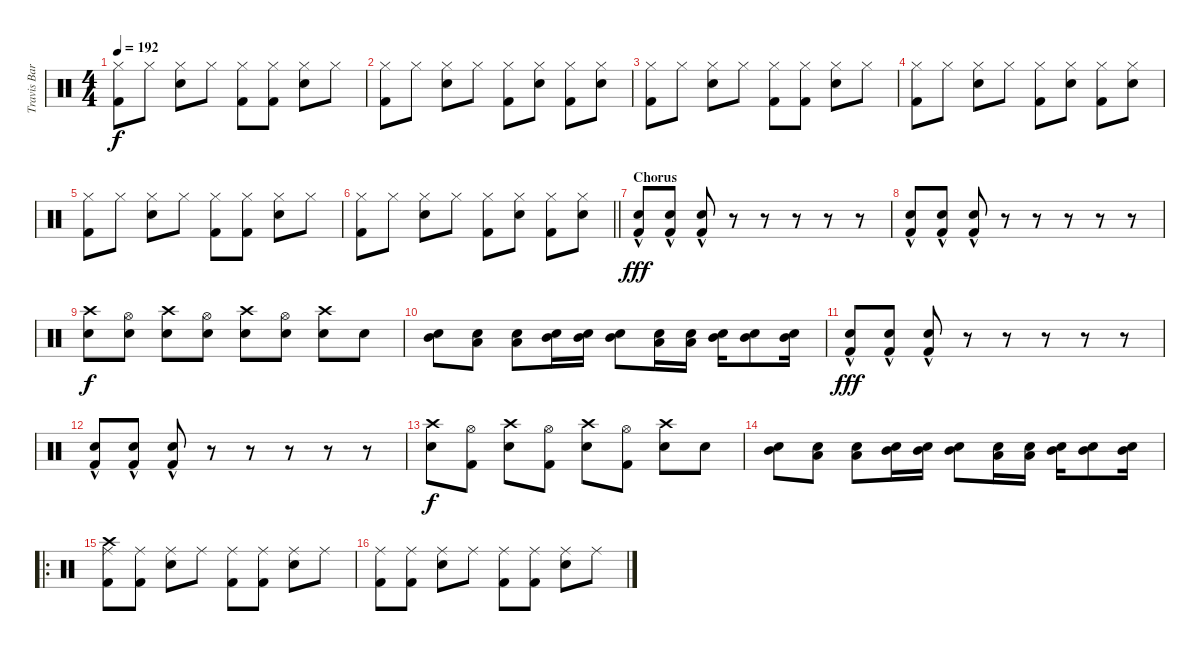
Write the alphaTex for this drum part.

\track ("Travis Barker" "Travis Bar") {instrument percussion}
\staff {score}
\articulation defaults
\ts (4 4)
\tempo 192
\clef neutral
\ks c
("Hi-Hat (closed)" "Kick (hit) 2").8{dy f} "Hi-Hat (closed)".8 ("Hi-Hat (closed)" "Snare (hit) 2").8 "Hi-Hat (closed)".8 ("Hi-Hat (closed)" "Kick (hit) 2").8 ("Hi-Hat (closed)" "Kick (hit) 2").8 ("Hi-Hat (closed)" "Snare (hit) 2").8 "Hi-Hat (closed)".8 |
("Hi-Hat (closed)" "Kick (hit) 2").8 "Hi-Hat (closed)".8 ("Hi-Hat (closed)" "Snare (hit) 2").8 "Hi-Hat (closed)".8 ("Hi-Hat (closed)" "Kick (hit) 2").8 ("Hi-Hat (closed)" "Snare (hit) 2").8 ("Hi-Hat (closed)" "Kick (hit) 2").8 ("Hi-Hat (closed)" "Snare (hit) 2").8 |
("Hi-Hat (closed)" "Kick (hit) 2").8 "Hi-Hat (closed)".8 ("Hi-Hat (closed)" "Snare (hit) 2").8 "Hi-Hat (closed)".8 ("Hi-Hat (closed)" "Kick (hit) 2").8 ("Hi-Hat (closed)" "Kick (hit) 2").8 ("Hi-Hat (closed)" "Snare (hit) 2").8 "Hi-Hat (closed)".8 |
("Hi-Hat (closed)" "Kick (hit) 2").8 "Hi-Hat (closed)".8 ("Hi-Hat (closed)" "Snare (hit) 2").8 "Hi-Hat (closed)".8 ("Hi-Hat (closed)" "Kick (hit) 2").8 ("Hi-Hat (closed)" "Snare (hit) 2").8 ("Hi-Hat (closed)" "Kick (hit) 2").8 ("Hi-Hat (closed)" "Snare (hit) 2").8 |
("Hi-Hat (closed)" "Kick (hit) 2").8 "Hi-Hat (closed)".8 ("Hi-Hat (closed)" "Snare (hit) 2").8 "Hi-Hat (closed)".8 ("Hi-Hat (closed)" "Kick (hit) 2").8 ("Hi-Hat (closed)" "Kick (hit) 2").8 ("Hi-Hat (closed)" "Snare (hit) 2").8 "Hi-Hat (closed)".8 |
\barLineRight lightlight
("Hi-Hat (closed)" "Kick (hit) 2").8 "Hi-Hat (closed)".8 ("Hi-Hat (closed)" "Snare (hit) 2").8 "Hi-Hat (closed)".8 ("Hi-Hat (closed)" "Kick (hit) 2").8 ("Hi-Hat (closed)" "Snare (hit) 2").8 ("Hi-Hat (closed)" "Kick (hit) 2").8 ("Hi-Hat (closed)" "Snare (hit) 2").8 |
\section ("" "Chorus")
("Kick (hit) 2"{hac} "Snare (hit) 2"{hac}).8{dy fff} ("Kick (hit) 2"{hac} "Snare (hit) 2"{hac}).8 ("Kick (hit) 2"{hac} "Snare (hit) 2"{hac}).8 r.8 r.8 r.8 r.8 r.8 |
("Kick (hit) 2"{hac} "Snare (hit) 2"{hac}).8 ("Kick (hit) 2"{hac} "Snare (hit) 2"{hac}).8 ("Kick (hit) 2"{hac} "Snare (hit) 2"{hac}).8 r.8 r.8 r.8 r.8 r.8 |
("Crash high (hit)" "Electric Snare (hit)").8{dy f} ("Hi-Hat (open)" "Snare (hit) 2").8 ("Crash high (hit)" "Electric Snare (hit)").8 ("Hi-Hat (open)" "Snare (hit) 2").8 ("Crash high (hit)" "Electric Snare (hit)").8 ("Hi-Hat (open)" "Snare (hit) 2").8 ("Crash high (hit)" "Electric Snare (hit)").8 "Electric Snare (hit)".8 |
("Mid Tom (hit)" "Snare (hit) 2").8 ("Low Floor Tom (hit)" "Snare (hit) 2").8 ("Low Floor Tom (hit)" "Snare (hit) 2").8 ("Mid Tom (hit)" "Snare (hit) 2").16 ("Mid Tom (hit)" "Snare (hit) 2").16 ("Mid Tom (hit)" "Snare (hit) 2").8 ("Low Floor Tom (hit)" "Snare (hit) 2").16 ("Low Floor Tom (hit)" "Snare (hit) 2").16 ("Mid Tom (hit)" "Snare (hit) 2").16 ("Mid Tom (hit)" "Snare (hit) 2").8 ("Mid Tom (hit)" "Snare (hit) 2").16 |
("Kick (hit) 2"{hac} "Snare (hit) 2"{hac}).8{dy fff} ("Kick (hit) 2"{hac} "Snare (hit) 2"{hac}).8 ("Kick (hit) 2"{hac} "Snare (hit) 2"{hac}).8 r.8 r.8 r.8 r.8 r.8 |
("Kick (hit) 2"{hac} "Snare (hit) 2"{hac}).8 ("Kick (hit) 2"{hac} "Snare (hit) 2"{hac}).8 ("Kick (hit) 2"{hac} "Snare (hit) 2"{hac}).8 r.8 r.8 r.8 r.8 r.8 |
("Crash high (hit)" "Electric Snare (hit)").8{dy f} ("Hi-Hat (open)" "Kick (hit) 2").8 ("Crash high (hit)" "Electric Snare (hit)").8 ("Hi-Hat (open)" "Kick (hit) 2").8 ("Crash high (hit)" "Electric Snare (hit)").8 ("Hi-Hat (open)" "Kick (hit) 2").8 ("Crash high (hit)" "Electric Snare (hit)").8 "Electric Snare (hit)".8 |
("Mid Tom (hit)" "Snare (hit) 2").8 ("Low Floor Tom (hit)" "Snare (hit) 2").8 ("Low Floor Tom (hit)" "Snare (hit) 2").8 ("Mid Tom (hit)" "Snare (hit) 2").16 ("Mid Tom (hit)" "Snare (hit) 2").16 ("Mid Tom (hit)" "Snare (hit) 2").8 ("Low Floor Tom (hit)" "Snare (hit) 2").16 ("Low Floor Tom (hit)" "Snare (hit) 2").16 ("Mid Tom (hit)" "Snare (hit) 2").16 ("Mid Tom (hit)" "Snare (hit) 2").8 ("Mid Tom (hit)" "Snare (hit) 2").16 |
\ro
("Kick (hit) 2" "Ride (middle)" "Crash high (hit)").8 ("Kick (hit) 2" "Ride (middle)").8 ("Electric Snare (hit)" "Ride (middle)").8 "Ride (middle)".8 ("Kick (hit) 2" "Ride (middle)").8 ("Kick (hit) 2" "Ride (middle)").8 ("Electric Snare (hit)" "Ride (middle)").8 "Ride (middle)".8 |
("Kick (hit) 2" "Ride (middle)").8 ("Kick (hit) 2" "Ride (middle)").8 ("Electric Snare (hit)" "Ride (middle)").8 "Ride (middle)".8 ("Kick (hit) 2" "Ride (middle)").8 ("Kick (hit) 2" "Ride (middle)").8 ("Electric Snare (hit)" "Ride (middle)").8 "Ride (middle)".8
